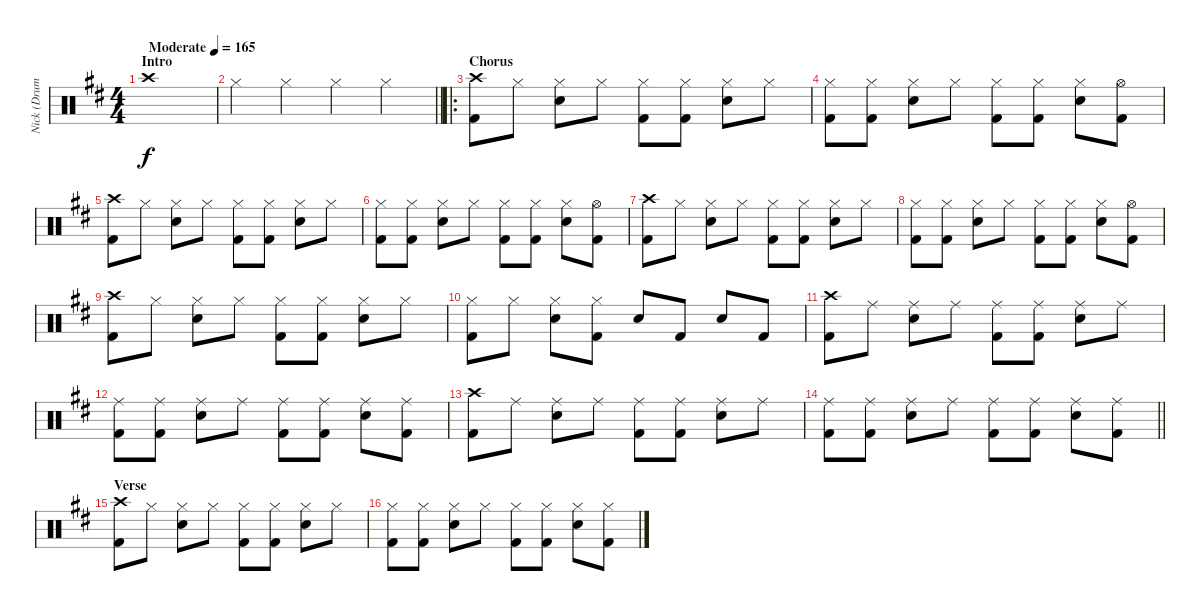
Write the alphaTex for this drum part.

\track ("Nick (Drums)" "Nick (Drum") {instrument percussion}
\staff {score}
\articulation defaults
\ts (4 4)
\section ("" "Intro")
\tempo (165 "Moderate")
\clef neutral
\ks d "Crash high (hit)".1{dy f}
|
\barLineRight lightlight "Hi-Hat (closed)".4 "Hi-Hat (closed)".4 "Hi-Hat (closed)".4 "Hi-Hat (closed)".4
|
\ro
\section ("" "Chorus")
("Crash high (hit)" "Kick (hit) 2").8 "Hi-Hat (closed)".8 ("Hi-Hat (closed)" "Snare (hit) 2").8 "Hi-Hat (closed)".8 ("Hi-Hat (closed)" "Kick (hit) 2").8 ("Hi-Hat (closed)" "Kick (hit) 2").8 ("Hi-Hat (closed)" "Snare (hit) 2").8 "Hi-Hat (closed)".8 |
("Kick (hit) 2" "Hi-Hat (closed)").8 ("Hi-Hat (closed)" "Kick (hit) 2").8 ("Hi-Hat (closed)" "Snare (hit) 2").8 "Hi-Hat (closed)".8 ("Hi-Hat (closed)" "Kick (hit) 2").8 ("Hi-Hat (closed)" "Kick (hit) 2").8 ("Hi-Hat (closed)" "Snare (hit) 2").8 ("Hi-Hat (open)" "Kick (hit) 2").8 |
("Crash high (hit)" "Kick (hit) 2").8 "Hi-Hat (closed)".8 ("Hi-Hat (closed)" "Snare (hit) 2").8 "Hi-Hat (closed)".8 ("Hi-Hat (closed)" "Kick (hit) 2").8 ("Hi-Hat (closed)" "Kick (hit) 2").8 ("Hi-Hat (closed)" "Snare (hit) 2").8 "Hi-Hat (closed)".8 |
("Kick (hit) 2" "Hi-Hat (closed)").8 ("Hi-Hat (closed)" "Kick (hit) 2").8 ("Hi-Hat (closed)" "Snare (hit) 2").8 "Hi-Hat (closed)".8 ("Hi-Hat (closed)" "Kick (hit) 2").8 ("Hi-Hat (closed)" "Kick (hit) 2").8 ("Hi-Hat (closed)" "Snare (hit) 2").8 ("Hi-Hat (open)" "Kick (hit) 2").8 |
("Crash high (hit)" "Kick (hit) 2").8 "Hi-Hat (closed)".8 ("Hi-Hat (closed)" "Snare (hit) 2").8 "Hi-Hat (closed)".8 ("Hi-Hat (closed)" "Kick (hit) 2").8 ("Hi-Hat (closed)" "Kick (hit) 2").8 ("Hi-Hat (closed)" "Snare (hit) 2").8 "Hi-Hat (closed)".8 |
("Kick (hit) 2" "Hi-Hat (closed)").8 ("Hi-Hat (closed)" "Kick (hit) 2").8 ("Hi-Hat (closed)" "Snare (hit) 2").8 "Hi-Hat (closed)".8 ("Hi-Hat (closed)" "Kick (hit) 2").8 ("Hi-Hat (closed)" "Kick (hit) 2").8 ("Hi-Hat (closed)" "Snare (hit) 2").8 ("Hi-Hat (open)" "Kick (hit) 2").8 |
("Crash high (hit)" "Kick (hit) 2").8 "Hi-Hat (closed)".8 ("Hi-Hat (closed)" "Snare (hit) 2").8 "Hi-Hat (closed)".8 ("Hi-Hat (closed)" "Kick (hit) 2").8 ("Hi-Hat (closed)" "Kick (hit) 2").8 ("Hi-Hat (closed)" "Snare (hit) 2").8 "Hi-Hat (closed)".8 |
("Kick (hit) 2" "Hi-Hat (closed)").8 "Hi-Hat (closed)".8 ("Hi-Hat (closed)" "Snare (hit) 2").8 ("Hi-Hat (closed)" "Kick (hit) 2").8 "Snare (hit) 2".8 "Kick (hit) 2".8 "Snare (hit) 2".8 "Kick (hit) 2".8 |
("Kick (hit) 2" "Crash high (hit)").8 "Ride (middle)".8 ("Ride (middle)" "Snare (hit) 2").8 "Ride (middle)".8 ("Ride (middle)" "Kick (hit) 2").8 ("Ride (middle)" "Kick (hit) 2").8 ("Ride (middle)" "Snare (hit) 2").8 "Ride (middle)".8 |
("Kick (hit) 2" "Ride (middle)").8 ("Ride (middle)" "Kick (hit) 2").8 ("Ride (middle)" "Snare (hit) 2").8 "Ride (middle)".8 ("Ride (middle)" "Kick (hit) 2").8 ("Ride (middle)" "Kick (hit) 2").8 ("Ride (middle)" "Snare (hit) 2").8 ("Ride (middle)" "Kick (hit) 2").8 |
("Crash high (hit)" "Kick (hit) 2").8 "Ride (middle)".8 ("Ride (middle)" "Snare (hit) 2").8 "Ride (middle)".8 ("Ride (middle)" "Kick (hit) 2").8 ("Ride (middle)" "Kick (hit) 2").8 ("Ride (middle)" "Snare (hit) 2").8 "Ride (middle)".8 |
\barLineRight lightlight
("Kick (hit) 2" "Ride (middle)").8 ("Ride (middle)" "Kick (hit) 2").8 ("Ride (middle)" "Snare (hit) 2").8 "Ride (middle)".8 ("Ride (middle)" "Kick (hit) 2").8 ("Ride (middle)" "Kick (hit) 2").8 ("Ride (middle)" "Snare (hit) 2").8 ("Ride (middle)" "Kick (hit) 2").8 |
\section ("" "Verse")
("Crash high (hit)" "Kick (hit) 2").8 "Hi-Hat (closed)".8 ("Hi-Hat (closed)" "Snare (hit) 2").8 "Hi-Hat (closed)".8 ("Hi-Hat (closed)" "Kick (hit) 2").8 ("Hi-Hat (closed)" "Kick (hit) 2").8 ("Hi-Hat (closed)" "Snare (hit) 2").8 "Hi-Hat (closed)".8 |
("Kick (hit) 2" "Hi-Hat (closed)").8 ("Hi-Hat (closed)" "Kick (hit) 2").8 ("Hi-Hat (closed)" "Snare (hit) 2").8 "Hi-Hat (closed)".8 ("Hi-Hat (closed)" "Kick (hit) 2").8 ("Hi-Hat (closed)" "Kick (hit) 2").8 ("Hi-Hat (closed)" "Snare (hit) 2").8 ("Hi-Hat (closed)" "Kick (hit) 2").8
